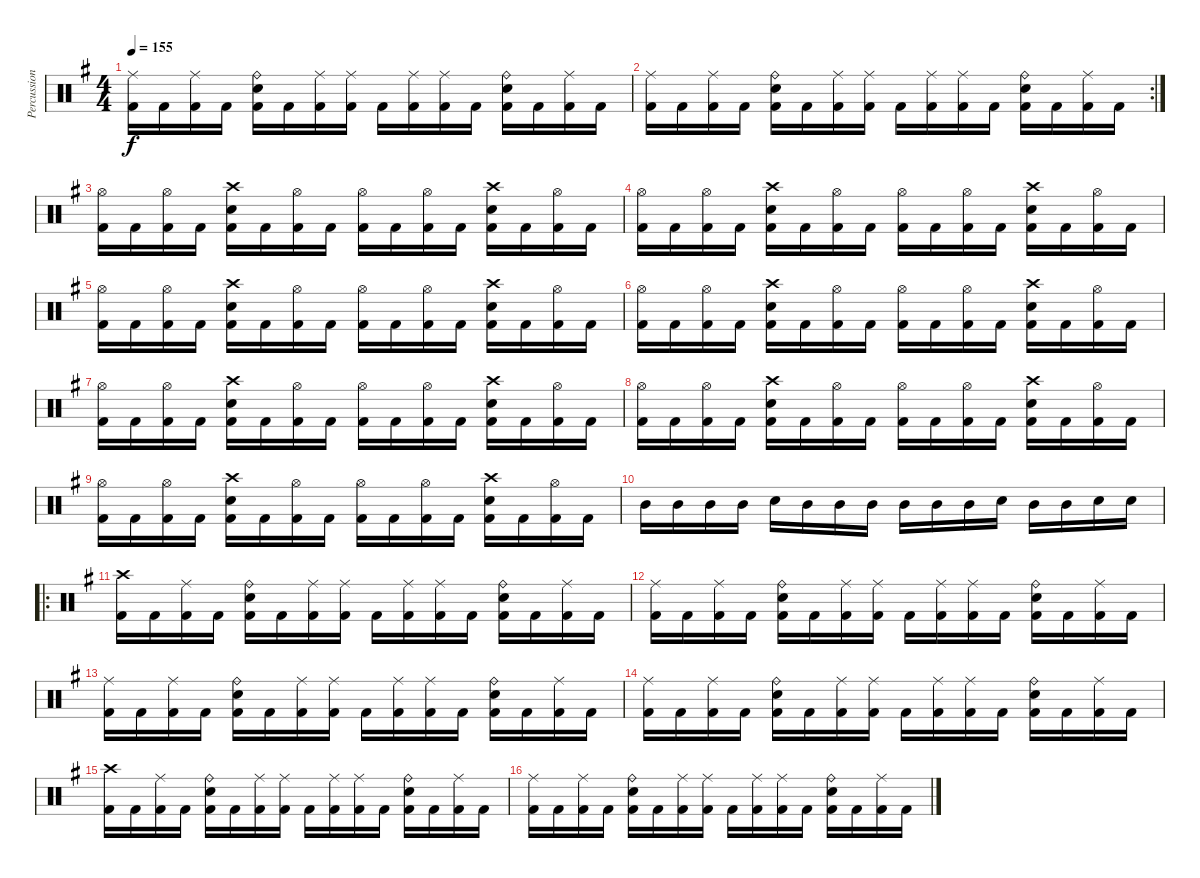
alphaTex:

\track ("Percussion" "Percussion") {instrument percussion}
\staff {score}
\articulation defaults
\ts (4 4)
\tempo 155
\clef neutral
\ks eminor
("Ride (middle)" "Kick (hit) 2").16{dy f} "Kick (hit) 2".16 ("Ride (middle)" "Kick (hit) 2").16 "Kick (hit) 2".16 ("Ride (bell)" "Electric Snare (hit)" "Kick (hit) 2").16 "Kick (hit) 2".16 ("Ride (middle)" "Kick (hit) 2").16 ("Ride (middle)" "Kick (hit) 2").16 "Kick (hit) 2".16 ("Ride (middle)" "Kick (hit) 2").16 ("Ride (middle)" "Kick (hit) 2").16 "Kick (hit) 2".16 ("Ride (bell)" "Electric Snare (hit)" "Kick (hit) 2").16 "Kick (hit) 2".16 ("Ride (middle)" "Kick (hit) 2").16 "Kick (hit) 2".16 |
\rc 2
("Ride (middle)" "Kick (hit) 2").16 "Kick (hit) 2".16 ("Ride (middle)" "Kick (hit) 2").16 "Kick (hit) 2".16 ("Ride (bell)" "Electric Snare (hit)" "Kick (hit) 2").16 "Kick (hit) 2".16 ("Ride (middle)" "Kick (hit) 2").16 ("Ride (middle)" "Kick (hit) 2").16 "Kick (hit) 2".16 ("Ride (middle)" "Kick (hit) 2").16 ("Ride (middle)" "Kick (hit) 2").16 "Kick (hit) 2".16 ("Ride (bell)" "Electric Snare (hit)" "Kick (hit) 2").16 "Kick (hit) 2".16 ("Ride (middle)" "Kick (hit) 2").16 "Kick (hit) 2".16 |
("Hi-Hat (open)" "Kick (hit) 2").16 "Kick (hit) 2".16 ("Hi-Hat (open)" "Kick (hit) 2").16 "Kick (hit) 2".16 ("Crash high (hit)" "Electric Snare (hit)" "Kick (hit) 2").16 "Kick (hit) 2".16 ("Hi-Hat (open)" "Kick (hit) 2").16 "Kick (hit) 2".16 ("Hi-Hat (open)" "Kick (hit) 2").16 "Kick (hit) 2".16 ("Hi-Hat (open)" "Kick (hit) 2").16 "Kick (hit) 2".16 ("Crash high (hit)" "Electric Snare (hit)" "Kick (hit) 2").16 "Kick (hit) 2".16 ("Hi-Hat (open)" "Kick (hit) 2").16 "Kick (hit) 2".16 |
("Hi-Hat (open)" "Kick (hit) 2").16 "Kick (hit) 2".16 ("Hi-Hat (open)" "Kick (hit) 2").16 "Kick (hit) 2".16 ("Crash high (hit)" "Electric Snare (hit)" "Kick (hit) 2").16 "Kick (hit) 2".16 ("Hi-Hat (open)" "Kick (hit) 2").16 "Kick (hit) 2".16 ("Hi-Hat (open)" "Kick (hit) 2").16 "Kick (hit) 2".16 ("Hi-Hat (open)" "Kick (hit) 2").16 "Kick (hit) 2".16 ("Crash high (hit)" "Electric Snare (hit)" "Kick (hit) 2").16 "Kick (hit) 2".16 ("Hi-Hat (open)" "Kick (hit) 2").16 "Kick (hit) 2".16 |
("Hi-Hat (open)" "Kick (hit) 2").16 "Kick (hit) 2".16 ("Hi-Hat (open)" "Kick (hit) 2").16 "Kick (hit) 2".16 ("Crash high (hit)" "Electric Snare (hit)" "Kick (hit) 2").16 "Kick (hit) 2".16 ("Hi-Hat (open)" "Kick (hit) 2").16 "Kick (hit) 2".16 ("Hi-Hat (open)" "Kick (hit) 2").16 "Kick (hit) 2".16 ("Hi-Hat (open)" "Kick (hit) 2").16 "Kick (hit) 2".16 ("Crash high (hit)" "Electric Snare (hit)" "Kick (hit) 2").16 "Kick (hit) 2".16 ("Hi-Hat (open)" "Kick (hit) 2").16 "Kick (hit) 2".16 |
("Hi-Hat (open)" "Kick (hit) 2").16 "Kick (hit) 2".16 ("Hi-Hat (open)" "Kick (hit) 2").16 "Kick (hit) 2".16 ("Crash high (hit)" "Electric Snare (hit)" "Kick (hit) 2").16 "Kick (hit) 2".16 ("Hi-Hat (open)" "Kick (hit) 2").16 "Kick (hit) 2".16 ("Hi-Hat (open)" "Kick (hit) 2").16 "Kick (hit) 2".16 ("Hi-Hat (open)" "Kick (hit) 2").16 "Kick (hit) 2".16 ("Crash high (hit)" "Electric Snare (hit)" "Kick (hit) 2").16 "Kick (hit) 2".16 ("Hi-Hat (open)" "Kick (hit) 2").16 "Kick (hit) 2".16 |
("Hi-Hat (open)" "Kick (hit) 2").16 "Kick (hit) 2".16 ("Hi-Hat (open)" "Kick (hit) 2").16 "Kick (hit) 2".16 ("Crash high (hit)" "Electric Snare (hit)" "Kick (hit) 2").16 "Kick (hit) 2".16 ("Hi-Hat (open)" "Kick (hit) 2").16 "Kick (hit) 2".16 ("Hi-Hat (open)" "Kick (hit) 2").16 "Kick (hit) 2".16 ("Hi-Hat (open)" "Kick (hit) 2").16 "Kick (hit) 2".16 ("Crash high (hit)" "Electric Snare (hit)" "Kick (hit) 2").16 "Kick (hit) 2".16 ("Hi-Hat (open)" "Kick (hit) 2").16 "Kick (hit) 2".16 |
("Hi-Hat (open)" "Kick (hit) 2").16 "Kick (hit) 2".16 ("Hi-Hat (open)" "Kick (hit) 2").16 "Kick (hit) 2".16 ("Crash high (hit)" "Electric Snare (hit)" "Kick (hit) 2").16 "Kick (hit) 2".16 ("Hi-Hat (open)" "Kick (hit) 2").16 "Kick (hit) 2".16 ("Hi-Hat (open)" "Kick (hit) 2").16 "Kick (hit) 2".16 ("Hi-Hat (open)" "Kick (hit) 2").16 "Kick (hit) 2".16 ("Crash high (hit)" "Electric Snare (hit)" "Kick (hit) 2").16 "Kick (hit) 2".16 ("Hi-Hat (open)" "Kick (hit) 2").16 "Kick (hit) 2".16 |
("Hi-Hat (open)" "Kick (hit) 2").16 "Kick (hit) 2".16 ("Hi-Hat (open)" "Kick (hit) 2").16 "Kick (hit) 2".16 ("Crash high (hit)" "Electric Snare (hit)" "Kick (hit) 2").16 "Kick (hit) 2".16 ("Hi-Hat (open)" "Kick (hit) 2").16 "Kick (hit) 2".16 ("Hi-Hat (open)" "Kick (hit) 2").16 "Kick (hit) 2".16 ("Hi-Hat (open)" "Kick (hit) 2").16 "Kick (hit) 2".16 ("Crash high (hit)" "Electric Snare (hit)" "Kick (hit) 2").16 "Kick (hit) 2".16 ("Hi-Hat (open)" "Kick (hit) 2").16 "Kick (hit) 2".16 |
"Mid Tom (hit)".16 "Mid Tom (hit)".16 "Mid Tom (hit)".16 "Mid Tom (hit)".16 "Electric Snare (hit)".16 "Mid Tom (hit)".16 "Mid Tom (hit)".16 "Mid Tom (hit)".16 "Mid Tom (hit)".16 "Mid Tom (hit)".16 "Mid Tom (hit)".16 "Electric Snare (hit)".16 "Mid Tom (hit)".16 "Mid Tom (hit)".16 "Electric Snare (hit)".16 "Electric Snare (hit)".16 |
\ro
("Crash high (hit)" "Kick (hit) 2").16 "Kick (hit) 2".16 ("Ride (middle)" "Kick (hit) 2").16 "Kick (hit) 2".16 ("Ride (bell)" "Electric Snare (hit)" "Kick (hit) 2").16 "Kick (hit) 2".16 ("Ride (middle)" "Kick (hit) 2").16 ("Ride (middle)" "Kick (hit) 2").16 "Kick (hit) 2".16 ("Ride (middle)" "Kick (hit) 2").16 ("Ride (middle)" "Kick (hit) 2").16 "Kick (hit) 2".16 ("Ride (bell)" "Electric Snare (hit)" "Kick (hit) 2").16 "Kick (hit) 2".16 ("Ride (middle)" "Kick (hit) 2").16 "Kick (hit) 2".16 |
("Ride (middle)" "Kick (hit) 2").16 "Kick (hit) 2".16 ("Ride (middle)" "Kick (hit) 2").16 "Kick (hit) 2".16 ("Ride (bell)" "Electric Snare (hit)" "Kick (hit) 2").16 "Kick (hit) 2".16 ("Ride (middle)" "Kick (hit) 2").16 ("Ride (middle)" "Kick (hit) 2").16 "Kick (hit) 2".16 ("Ride (middle)" "Kick (hit) 2").16 ("Ride (middle)" "Kick (hit) 2").16 "Kick (hit) 2".16 ("Ride (bell)" "Electric Snare (hit)" "Kick (hit) 2").16 "Kick (hit) 2".16 ("Ride (middle)" "Kick (hit) 2").16 "Kick (hit) 2".16 |
("Ride (middle)" "Kick (hit) 2").16 "Kick (hit) 2".16 ("Ride (middle)" "Kick (hit) 2").16 "Kick (hit) 2".16 ("Ride (bell)" "Electric Snare (hit)" "Kick (hit) 2").16 "Kick (hit) 2".16 ("Ride (middle)" "Kick (hit) 2").16 ("Ride (middle)" "Kick (hit) 2").16 "Kick (hit) 2".16 ("Ride (middle)" "Kick (hit) 2").16 ("Ride (middle)" "Kick (hit) 2").16 "Kick (hit) 2".16 ("Ride (bell)" "Electric Snare (hit)" "Kick (hit) 2").16 "Kick (hit) 2".16 ("Ride (middle)" "Kick (hit) 2").16 "Kick (hit) 2".16 |
("Ride (middle)" "Kick (hit) 2").16 "Kick (hit) 2".16 ("Ride (middle)" "Kick (hit) 2").16 "Kick (hit) 2".16 ("Ride (bell)" "Electric Snare (hit)" "Kick (hit) 2").16 "Kick (hit) 2".16 ("Ride (middle)" "Kick (hit) 2").16 ("Ride (middle)" "Kick (hit) 2").16 "Kick (hit) 2".16 ("Ride (middle)" "Kick (hit) 2").16 ("Ride (middle)" "Kick (hit) 2").16 "Kick (hit) 2".16 ("Ride (bell)" "Electric Snare (hit)" "Kick (hit) 2").16 "Kick (hit) 2".16 ("Ride (middle)" "Kick (hit) 2").16 "Kick (hit) 2".16 |
("Crash high (hit)" "Kick (hit) 2").16 "Kick (hit) 2".16 ("Ride (middle)" "Kick (hit) 2").16 "Kick (hit) 2".16 ("Ride (bell)" "Electric Snare (hit)" "Kick (hit) 2").16 "Kick (hit) 2".16 ("Ride (middle)" "Kick (hit) 2").16 ("Ride (middle)" "Kick (hit) 2").16 "Kick (hit) 2".16 ("Ride (middle)" "Kick (hit) 2").16 ("Ride (middle)" "Kick (hit) 2").16 "Kick (hit) 2".16 ("Ride (bell)" "Electric Snare (hit)" "Kick (hit) 2").16 "Kick (hit) 2".16 ("Ride (middle)" "Kick (hit) 2").16 "Kick (hit) 2".16 |
("Ride (middle)" "Kick (hit) 2").16 "Kick (hit) 2".16 ("Ride (middle)" "Kick (hit) 2").16 "Kick (hit) 2".16 ("Ride (bell)" "Electric Snare (hit)" "Kick (hit) 2").16 "Kick (hit) 2".16 ("Ride (middle)" "Kick (hit) 2").16 ("Ride (middle)" "Kick (hit) 2").16 "Kick (hit) 2".16 ("Ride (middle)" "Kick (hit) 2").16 ("Ride (middle)" "Kick (hit) 2").16 "Kick (hit) 2".16 ("Ride (bell)" "Electric Snare (hit)" "Kick (hit) 2").16 "Kick (hit) 2".16 ("Ride (middle)" "Kick (hit) 2").16 "Kick (hit) 2".16
